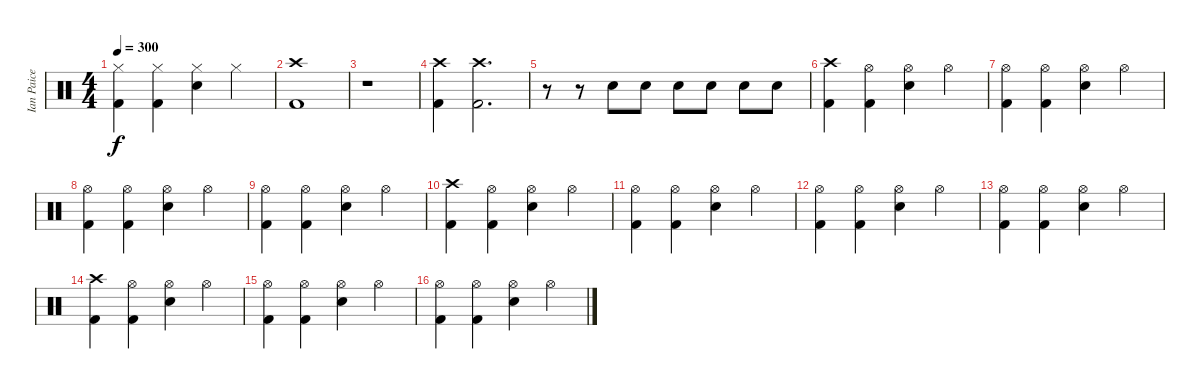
\track ("Ian Paice" "Ian Paice") {instrument percussion}
\staff {score}
\articulation defaults
\ts (4 4)
\tempo 300
\clef neutral
\ks c
("Hi-Hat (closed)" "Kick (hit) 2").4{dy f} ("Hi-Hat (closed)" "Kick (hit) 2").4 ("Hi-Hat (closed)" "Electric Snare (hit)").4 "Hi-Hat (closed)".4 |
("Crash high (hit)" "Kick (hit) 2").1 |
r.1 |
("Crash high (hit)" "Kick (hit) 2").4 ("Crash high (hit)" "Kick (hit) 2").2{d} |
r.8 r.8 "Electric Snare (hit)".8 "Electric Snare (hit)".8 "Electric Snare (hit)".8 "Electric Snare (hit)".8 "Electric Snare (hit)".8 "Electric Snare (hit)".8 |
("Crash high (hit)" "Kick (hit) 2").4 ("Hi-Hat (open)" "Kick (hit) 2").4 ("Hi-Hat (open)" "Electric Snare (hit)").4 "Hi-Hat (open)".4 |
("Hi-Hat (open)" "Kick (hit) 2").4 ("Hi-Hat (open)" "Kick (hit) 2").4 ("Hi-Hat (open)" "Electric Snare (hit)").4 "Hi-Hat (open)".4 |
("Hi-Hat (open)" "Kick (hit) 2").4 ("Hi-Hat (open)" "Kick (hit) 2").4 ("Hi-Hat (open)" "Electric Snare (hit)").4 "Hi-Hat (open)".4 |
("Hi-Hat (open)" "Kick (hit) 2").4 ("Hi-Hat (open)" "Kick (hit) 2").4 ("Hi-Hat (open)" "Electric Snare (hit)").4 "Hi-Hat (open)".4 |
("Crash high (hit)" "Kick (hit) 2").4 ("Hi-Hat (open)" "Kick (hit) 2").4 ("Hi-Hat (open)" "Electric Snare (hit)").4 "Hi-Hat (open)".4 |
("Hi-Hat (open)" "Kick (hit) 2").4 ("Hi-Hat (open)" "Kick (hit) 2").4 ("Hi-Hat (open)" "Electric Snare (hit)").4 "Hi-Hat (open)".4 |
("Hi-Hat (open)" "Kick (hit) 2").4 ("Hi-Hat (open)" "Kick (hit) 2").4 ("Hi-Hat (open)" "Electric Snare (hit)").4 "Hi-Hat (open)".4 |
("Hi-Hat (open)" "Kick (hit) 2").4 ("Hi-Hat (open)" "Kick (hit) 2").4 ("Hi-Hat (open)" "Electric Snare (hit)").4 "Hi-Hat (open)".4 |
("Crash high (hit)" "Kick (hit) 2").4 ("Hi-Hat (open)" "Kick (hit) 2").4 ("Hi-Hat (open)" "Electric Snare (hit)").4 "Hi-Hat (open)".4 |
("Hi-Hat (open)" "Kick (hit) 2").4 ("Hi-Hat (open)" "Kick (hit) 2").4 ("Hi-Hat (open)" "Electric Snare (hit)").4 "Hi-Hat (open)".4 |
("Hi-Hat (open)" "Kick (hit) 2").4 ("Hi-Hat (open)" "Kick (hit) 2").4 ("Hi-Hat (open)" "Electric Snare (hit)").4 "Hi-Hat (open)".4
